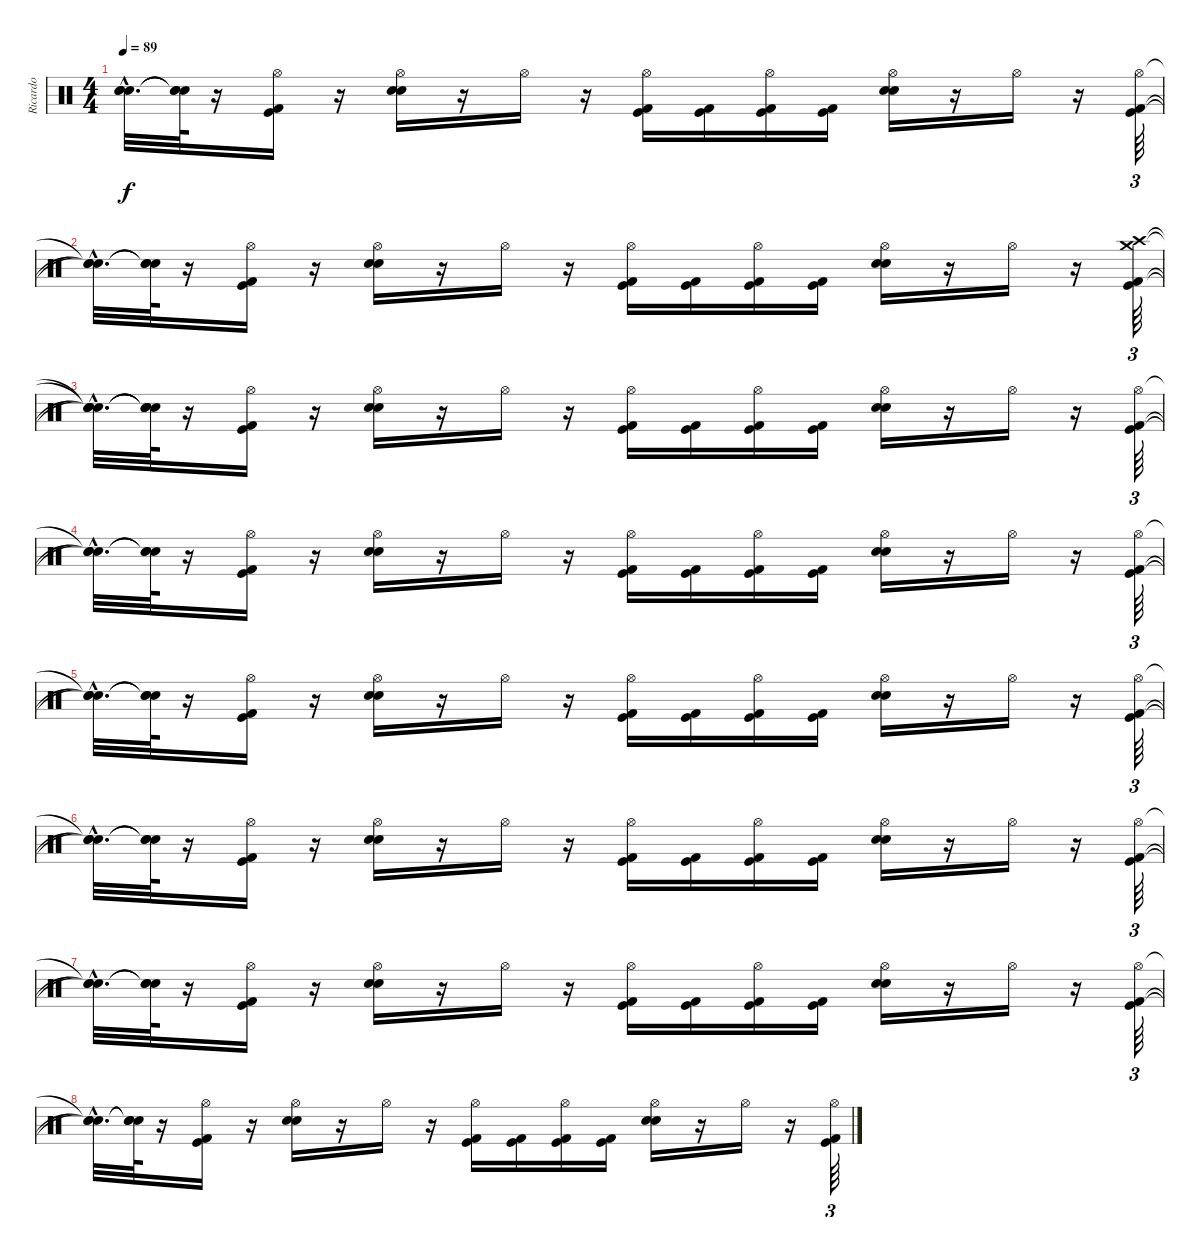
\track ("Ricardo" "Ricardo") {instrument percussion}
\staff {score}
\articulation defaults
\ts (4 4)
\tempo 89
\clef neutral
\ks c
("Snare (hit)"{hac t} "Snare (hit)"{hac t} "Snare (hit)"{hac t}).32{d dy f} ("Snare (hit)"{t} "Snare (hit)"{t} "Snare (hit)"{t}).64 r.16 ("Hi-Hat (open)" "Kick (hit) 2" "Kick (hit)").16 r.16 ("Hi-Hat (open)" "Electric Snare (hit)" "Snare (hit) 2").16 r.16 "Hi-Hat (open)".16 r.16 ("Hi-Hat (open)" "Kick (hit) 2" "Kick (hit)").16 ("Kick (hit) 2" "Kick (hit)").16 ("Hi-Hat (open)" "Kick (hit) 2" "Kick (hit)").16 ("Kick (hit) 2" "Kick (hit)").16 ("Hi-Hat (open)" "Electric Snare (hit)" "Snare (hit) 2").16 r.16 "Hi-Hat (open)".16 r.16 ("Hi-Hat (open)" "Kick (hit) 2" "Kick (hit)").64{tu (3 2)} |
("Snare (hit)"{hac t} "Snare (hit)"{hac t} "Snare (hit)"{hac t}).32{d} ("Snare (hit)"{t} "Snare (hit)"{t} "Snare (hit)"{t}).64 r.16 ("Hi-Hat (open)" "Kick (hit) 2" "Kick (hit)").16 r.16 ("Hi-Hat (open)" "Electric Snare (hit)" "Snare (hit) 2").16 r.16 "Hi-Hat (open)".16 r.16 ("Hi-Hat (open)" "Kick (hit) 2" "Kick (hit)").16 ("Kick (hit) 2" "Kick (hit)").16 ("Hi-Hat (open)" "Kick (hit) 2" "Kick (hit)").16 ("Kick (hit) 2" "Kick (hit)").16 ("Hi-Hat (open)" "Electric Snare (hit)" "Snare (hit) 2").16 r.16 "Hi-Hat (open)".16 r.16 ("Crash high (hit)" "Crash medium (hit)" "Kick (hit) 2" "Kick (hit)").64{tu (3 2)} |
("Snare (hit)"{hac t} "Snare (hit)"{hac t} "Snare (hit)"{hac t} "Snare (hit)"{hac t}).32{d} ("Snare (hit)"{t} "Snare (hit)"{t} "Snare (hit)"{t} "Snare (hit)"{t}).64 r.16 ("Hi-Hat (open)" "Kick (hit) 2" "Kick (hit)").16 r.16 ("Hi-Hat (open)" "Electric Snare (hit)" "Snare (hit) 2").16 r.16 "Hi-Hat (open)".16 r.16 ("Hi-Hat (open)" "Kick (hit) 2" "Kick (hit)").16 ("Kick (hit) 2" "Kick (hit)").16 ("Hi-Hat (open)" "Kick (hit) 2" "Kick (hit)").16 ("Kick (hit) 2" "Kick (hit)").16 ("Hi-Hat (open)" "Electric Snare (hit)" "Snare (hit) 2").16 r.16 "Hi-Hat (open)".16 r.16 ("Hi-Hat (open)" "Kick (hit) 2" "Kick (hit)").64{tu (3 2)} |
("Snare (hit)"{hac t} "Snare (hit)"{hac t} "Snare (hit)"{hac t}).32{d} ("Snare (hit)"{t} "Snare (hit)"{t} "Snare (hit)"{t}).64 r.16 ("Hi-Hat (open)" "Kick (hit) 2" "Kick (hit)").16 r.16 ("Hi-Hat (open)" "Electric Snare (hit)" "Snare (hit) 2").16 r.16 "Hi-Hat (open)".16 r.16 ("Hi-Hat (open)" "Kick (hit) 2" "Kick (hit)").16 ("Kick (hit) 2" "Kick (hit)").16 ("Hi-Hat (open)" "Kick (hit) 2" "Kick (hit)").16 ("Kick (hit) 2" "Kick (hit)").16 ("Hi-Hat (open)" "Electric Snare (hit)" "Snare (hit) 2").16 r.16 "Hi-Hat (open)".16 r.16 ("Hi-Hat (open)" "Kick (hit) 2" "Kick (hit)").64{tu (3 2)} |
("Snare (hit)"{hac t} "Snare (hit)"{hac t} "Snare (hit)"{hac t}).32{d} ("Snare (hit)"{t} "Snare (hit)"{t} "Snare (hit)"{t}).64 r.16 ("Hi-Hat (open)" "Kick (hit) 2" "Kick (hit)").16 r.16 ("Hi-Hat (open)" "Electric Snare (hit)" "Snare (hit) 2").16 r.16 "Hi-Hat (open)".16 r.16 ("Hi-Hat (open)" "Kick (hit) 2" "Kick (hit)").16 ("Kick (hit) 2" "Kick (hit)").16 ("Hi-Hat (open)" "Kick (hit) 2" "Kick (hit)").16 ("Kick (hit) 2" "Kick (hit)").16 ("Hi-Hat (open)" "Electric Snare (hit)" "Snare (hit) 2").16 r.16 "Hi-Hat (open)".16 r.16 ("Hi-Hat (open)" "Kick (hit) 2" "Kick (hit)").64{tu (3 2)} |
("Snare (hit)"{hac t} "Snare (hit)"{hac t} "Snare (hit)"{hac t}).32{d} ("Snare (hit)"{t} "Snare (hit)"{t} "Snare (hit)"{t}).64 r.16 ("Hi-Hat (open)" "Kick (hit) 2" "Kick (hit)").16 r.16 ("Hi-Hat (open)" "Electric Snare (hit)" "Snare (hit) 2").16 r.16 "Hi-Hat (open)".16 r.16 ("Hi-Hat (open)" "Kick (hit) 2" "Kick (hit)").16 ("Kick (hit) 2" "Kick (hit)").16 ("Hi-Hat (open)" "Kick (hit) 2" "Kick (hit)").16 ("Kick (hit) 2" "Kick (hit)").16 ("Hi-Hat (open)" "Electric Snare (hit)" "Snare (hit) 2").16 r.16 "Hi-Hat (open)".16 r.16 ("Hi-Hat (open)" "Kick (hit) 2" "Kick (hit)").64{tu (3 2)} |
("Snare (hit)"{hac t} "Snare (hit)"{hac t} "Snare (hit)"{hac t}).32{d} ("Snare (hit)"{t} "Snare (hit)"{t} "Snare (hit)"{t}).64 r.16 ("Hi-Hat (open)" "Kick (hit) 2" "Kick (hit)").16 r.16 ("Hi-Hat (open)" "Electric Snare (hit)" "Snare (hit) 2").16 r.16 "Hi-Hat (open)".16 r.16 ("Hi-Hat (open)" "Kick (hit) 2" "Kick (hit)").16 ("Kick (hit) 2" "Kick (hit)").16 ("Hi-Hat (open)" "Kick (hit) 2" "Kick (hit)").16 ("Kick (hit) 2" "Kick (hit)").16 ("Hi-Hat (open)" "Electric Snare (hit)" "Snare (hit) 2").16 r.16 "Hi-Hat (open)".16 r.16 ("Hi-Hat (open)" "Kick (hit) 2" "Kick (hit)").64{tu (3 2)} |
("Snare (hit)"{hac t} "Snare (hit)"{hac t} "Snare (hit)"{hac t}).32{d} ("Snare (hit)"{t} "Snare (hit)"{t} "Snare (hit)"{t}).64 r.16 ("Hi-Hat (open)" "Kick (hit) 2" "Kick (hit)").16 r.16 ("Hi-Hat (open)" "Electric Snare (hit)" "Snare (hit) 2").16 r.16 "Hi-Hat (open)".16 r.16 ("Hi-Hat (open)" "Kick (hit) 2" "Kick (hit)").16 ("Kick (hit) 2" "Kick (hit)").16 ("Hi-Hat (open)" "Kick (hit) 2" "Kick (hit)").16 ("Kick (hit) 2" "Kick (hit)").16 ("Hi-Hat (open)" "Electric Snare (hit)" "Snare (hit) 2").16 r.16 "Hi-Hat (open)".16 r.16 ("Hi-Hat (open)" "Kick (hit) 2" "Kick (hit)").64{tu (3 2)}
